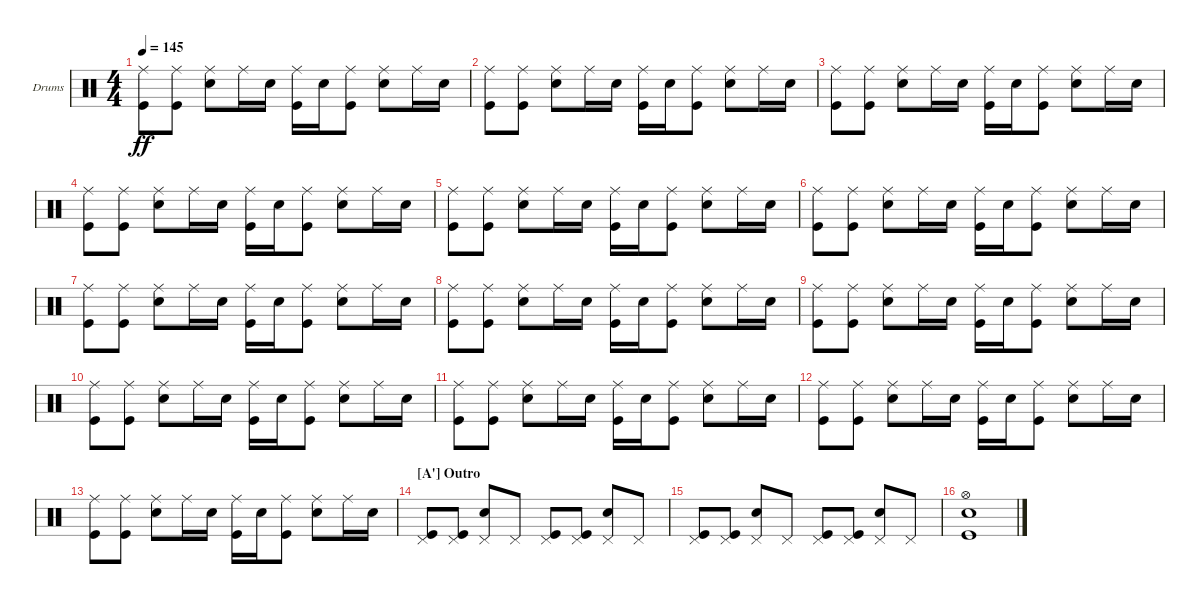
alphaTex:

\bracketExtendMode groupsimilarinstruments
\firstSystemTrackNameOrientation horizontal
\otherSystemsTrackNameOrientation horizontal
\track ("Fabrizio Moretti" "Drums") {instrument percussion}
\staff {score}
\articulation defaults
\ts (4 4)
\tempo 145
\clef neutral
\ks c
("Ride (middle)" "Kick (hit)").8{dy ff} ("Ride (middle)" "Kick (hit)").8 ("Ride (middle)" "Snare (hit) 2").8 "Ride (middle)".16 "Snare (hit) 2".16 ("Ride (middle)" "Kick (hit)").16 "Snare (hit) 2".16 ("Ride (middle)" "Kick (hit)").8 ("Ride (middle)" "Snare (hit) 2").8 "Ride (middle)".16 "Snare (hit) 2".16 |
("Ride (middle)" "Kick (hit)").8 ("Ride (middle)" "Kick (hit)").8 ("Ride (middle)" "Snare (hit) 2").8 "Ride (middle)".16 "Snare (hit) 2".16 ("Ride (middle)" "Kick (hit)").16 "Snare (hit) 2".16 ("Ride (middle)" "Kick (hit)").8 ("Ride (middle)" "Snare (hit) 2").8 "Ride (middle)".16 "Snare (hit) 2".16 |
("Ride (middle)" "Kick (hit)").8 ("Ride (middle)" "Kick (hit)").8 ("Ride (middle)" "Snare (hit) 2").8 "Ride (middle)".16 "Snare (hit) 2".16 ("Ride (middle)" "Kick (hit)").16 "Snare (hit) 2".16 ("Ride (middle)" "Kick (hit)").8 ("Ride (middle)" "Snare (hit) 2").8 "Ride (middle)".16 "Snare (hit) 2".16 |
("Ride (middle)" "Kick (hit)").8 ("Ride (middle)" "Kick (hit)").8 ("Ride (middle)" "Snare (hit) 2").8 "Ride (middle)".16 "Snare (hit) 2".16 ("Ride (middle)" "Kick (hit)").16 "Snare (hit) 2".16 ("Ride (middle)" "Kick (hit)").8 ("Ride (middle)" "Snare (hit) 2").8 "Ride (middle)".16 "Snare (hit) 2".16 |
("Ride (middle)" "Kick (hit)").8 ("Ride (middle)" "Kick (hit)").8 ("Ride (middle)" "Snare (hit) 2").8 "Ride (middle)".16 "Snare (hit) 2".16 ("Ride (middle)" "Kick (hit)").16 "Snare (hit) 2".16 ("Ride (middle)" "Kick (hit)").8 ("Ride (middle)" "Snare (hit) 2").8 "Ride (middle)".16 "Snare (hit) 2".16 |
("Ride (middle)" "Kick (hit)").8 ("Ride (middle)" "Kick (hit)").8 ("Ride (middle)" "Snare (hit) 2").8 "Ride (middle)".16 "Snare (hit) 2".16 ("Ride (middle)" "Kick (hit)").16 "Snare (hit) 2".16 ("Ride (middle)" "Kick (hit)").8 ("Ride (middle)" "Snare (hit) 2").8 "Ride (middle)".16 "Snare (hit) 2".16 |
("Ride (middle)" "Kick (hit)").8 ("Ride (middle)" "Kick (hit)").8 ("Ride (middle)" "Snare (hit) 2").8 "Ride (middle)".16 "Snare (hit) 2".16 ("Ride (middle)" "Kick (hit)").16 "Snare (hit) 2".16 ("Ride (middle)" "Kick (hit)").8 ("Ride (middle)" "Snare (hit) 2").8 "Ride (middle)".16 "Snare (hit) 2".16 |
("Ride (middle)" "Kick (hit)").8 ("Ride (middle)" "Kick (hit)").8 ("Ride (middle)" "Snare (hit) 2").8 "Ride (middle)".16 "Snare (hit) 2".16 ("Ride (middle)" "Kick (hit)").16 "Snare (hit) 2".16 ("Ride (middle)" "Kick (hit)").8 ("Ride (middle)" "Snare (hit) 2").8 "Ride (middle)".16 "Snare (hit) 2".16 |
("Ride (middle)" "Kick (hit)").8 ("Ride (middle)" "Kick (hit)").8 ("Ride (middle)" "Snare (hit) 2").8 "Ride (middle)".16 "Snare (hit) 2".16 ("Ride (middle)" "Kick (hit)").16 "Snare (hit) 2".16 ("Ride (middle)" "Kick (hit)").8 ("Ride (middle)" "Snare (hit) 2").8 "Ride (middle)".16 "Snare (hit) 2".16 |
("Ride (middle)" "Kick (hit)").8 ("Ride (middle)" "Kick (hit)").8 ("Ride (middle)" "Snare (hit) 2").8 "Ride (middle)".16 "Snare (hit) 2".16 ("Ride (middle)" "Kick (hit)").16 "Snare (hit) 2".16 ("Ride (middle)" "Kick (hit)").8 ("Ride (middle)" "Snare (hit) 2").8 "Ride (middle)".16 "Snare (hit) 2".16 |
("Ride (middle)" "Kick (hit)").8 ("Ride (middle)" "Kick (hit)").8 ("Ride (middle)" "Snare (hit) 2").8 "Ride (middle)".16 "Snare (hit) 2".16 ("Ride (middle)" "Kick (hit)").16 "Snare (hit) 2".16 ("Ride (middle)" "Kick (hit)").8 ("Ride (middle)" "Snare (hit) 2").8 "Ride (middle)".16 "Snare (hit) 2".16 |
("Ride (middle)" "Kick (hit)").8 ("Ride (middle)" "Kick (hit)").8 ("Ride (middle)" "Snare (hit) 2").8 "Ride (middle)".16 "Snare (hit) 2".16 ("Ride (middle)" "Kick (hit)").16 "Snare (hit) 2".16 ("Ride (middle)" "Kick (hit)").8 ("Ride (middle)" "Snare (hit) 2").8 "Ride (middle)".16 "Snare (hit) 2".16 |
("Ride (middle)" "Kick (hit)").8 ("Ride (middle)" "Kick (hit)").8 ("Ride (middle)" "Snare (hit) 2").8 "Ride (middle)".16 "Snare (hit) 2".16 ("Ride (middle)" "Kick (hit)").16 "Snare (hit) 2".16 ("Ride (middle)" "Kick (hit)").8 ("Ride (middle)" "Snare (hit) 2").8 "Ride (middle)".16 "Snare (hit) 2".16 |
\section ("A'" "Outro")
("Pedal Hi-Hat (hit)" "Kick (hit)").8 ("Pedal Hi-Hat (hit)" "Kick (hit)").8 ("Pedal Hi-Hat (hit)" "Snare (hit) 2").8 "Pedal Hi-Hat (hit)".8 ("Pedal Hi-Hat (hit)" "Kick (hit)").8 ("Pedal Hi-Hat (hit)" "Kick (hit)").8 ("Pedal Hi-Hat (hit)" "Snare (hit) 2").8 "Pedal Hi-Hat (hit)".8 |
("Pedal Hi-Hat (hit)" "Kick (hit)").8 ("Pedal Hi-Hat (hit)" "Kick (hit)").8 ("Pedal Hi-Hat (hit)" "Snare (hit) 2").8 "Pedal Hi-Hat (hit)".8 ("Pedal Hi-Hat (hit)" "Kick (hit)").8 ("Pedal Hi-Hat (hit)" "Kick (hit)").8 ("Pedal Hi-Hat (hit)" "Snare (hit) 2").8 "Pedal Hi-Hat (hit)".8 |
("Hi-Hat (open)" "Snare (hit) 2" "Kick (hit)").1
